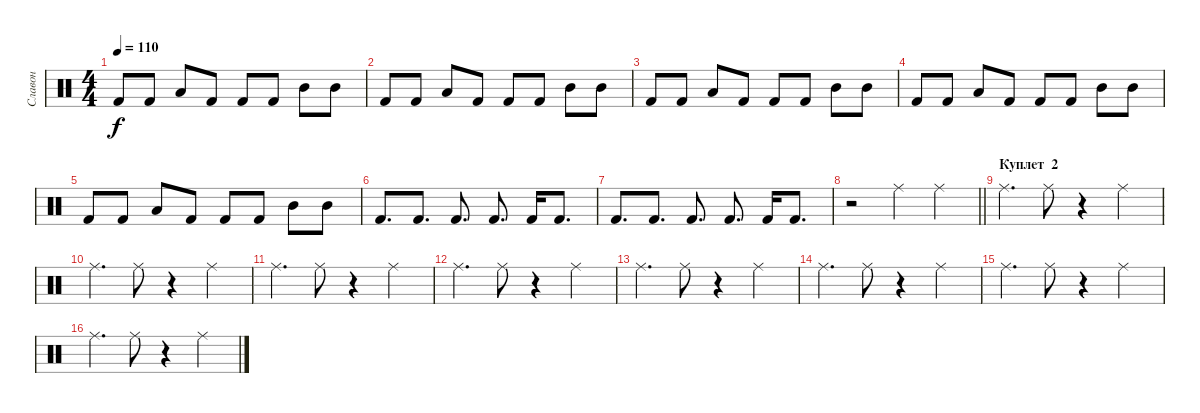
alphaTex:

\track ("Славон" "Славон") {instrument percussion}
\staff {score}
\articulation defaults
\ts (4 4)
\tempo 110
\clef neutral
\ks c "Kick (hit) 2".8{dy f} "Kick (hit) 2".8 "Low Tom (hit)".8 "Kick (hit) 2".8 "Kick (hit) 2".8 "Kick (hit) 2".8 "Mid Tom (hit)".8 "Mid Tom (hit)".8
|
"Kick (hit) 2".8 "Kick (hit) 2".8 "Low Tom (hit)".8 "Kick (hit) 2".8 "Kick (hit) 2".8 "Kick (hit) 2".8 "Mid Tom (hit)".8 "Mid Tom (hit)".8 |
"Kick (hit) 2".8 "Kick (hit) 2".8 "Low Tom (hit)".8 "Kick (hit) 2".8 "Kick (hit) 2".8 "Kick (hit) 2".8 "Mid Tom (hit)".8 "Mid Tom (hit)".8 |
"Kick (hit) 2".8 "Kick (hit) 2".8 "Low Tom (hit)".8 "Kick (hit) 2".8 "Kick (hit) 2".8 "Kick (hit) 2".8 "Mid Tom (hit)".8 "Mid Tom (hit)".8 |
"Kick (hit) 2".8 "Kick (hit) 2".8 "Low Tom (hit)".8 "Kick (hit) 2".8 "Kick (hit) 2".8 "Kick (hit) 2".8 "Mid Tom (hit)".8 "Mid Tom (hit)".8 |
"Kick (hit) 2".8{d} "Kick (hit) 2".8{d} "Kick (hit) 2".8{d} "Kick (hit) 2".8{d} "Kick (hit) 2".16 "Kick (hit) 2".8{d} |
"Kick (hit) 2".8{d} "Kick (hit) 2".8{d} "Kick (hit) 2".8{d} "Kick (hit) 2".8{d} "Kick (hit) 2".16 "Kick (hit) 2".8{d} |
\barLineRight lightlight
r.2 "Ride (middle)".4 "Ride (middle)".4 |
\section ("" "Куплет  2")
"Ride (middle)".4{d} "Ride (middle)".8 r.4 "Ride (middle)".4 |
"Ride (middle)".4{d} "Ride (middle)".8 r.4 "Ride (middle)".4 |
"Ride (middle)".4{d} "Ride (middle)".8 r.4 "Ride (middle)".4 |
"Ride (middle)".4{d} "Ride (middle)".8 r.4 "Ride (middle)".4 |
"Ride (middle)".4{d} "Ride (middle)".8 r.4 "Ride (middle)".4 |
"Ride (middle)".4{d} "Ride (middle)".8 r.4 "Ride (middle)".4 |
"Ride (middle)".4{d} "Ride (middle)".8 r.4 "Ride (middle)".4 |
"Ride (middle)".4{d} "Ride (middle)".8 r.4 "Ride (middle)".4
